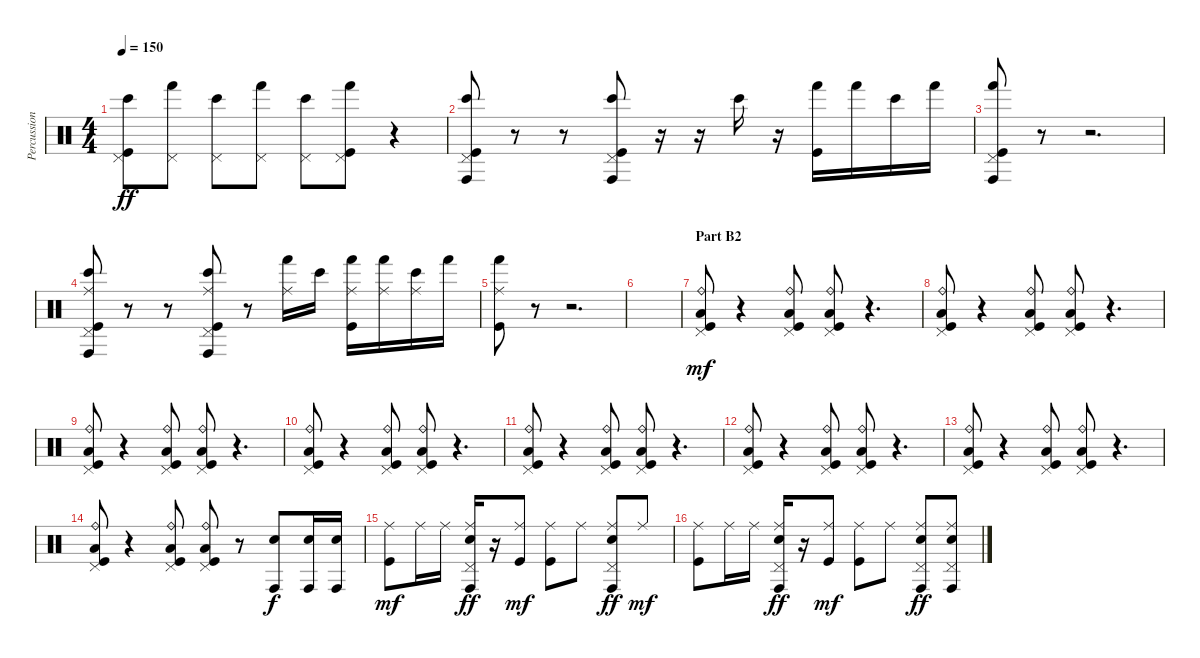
\track ("Percussion" "Percussion") {instrument percussion}
\staff {score}
\articulation defaults
\ts (4 4)
\tempo 150
\clef neutral
\ks c
("Pedal Hi-Hat (hit)" "Bongo High (hit)" "Kick (hit)").8{dy ff} ("Pedal Hi-Hat (hit)" "Hand (hit)").8 ("Pedal Hi-Hat (hit)" "Bongo High (hit)").8 ("Pedal Hi-Hat (hit)" "Hand (hit)").8 ("Pedal Hi-Hat (hit)" "Bongo High (hit)").8 ("Pedal Hi-Hat (hit)" "Hand (hit)" "Kick (hit)").8 r.4 |
("Pedal Hi-Hat (hit)" "Conga high (hit)" "Bongo High (hit)" "Kick (hit)").8 r.8 r.8 ("Pedal Hi-Hat (hit)" "Conga high (hit)" "Bongo High (hit)" "Kick (hit)").8 r.16 r.16 "Bongo High (hit)".16 r.16 ("Hand (hit)" "Kick (hit)").16 "Hand (hit)".16 "Bongo High (hit)".16 "Hand (hit)".16 |
("Pedal Hi-Hat (hit)" "Conga high (hit)" "Hand (hit)" "Kick (hit)").8 r.8 r.2{d} |
("Ride (middle)" "Pedal Hi-Hat (hit)" "Conga high (hit)" "Bongo High (hit)" "Kick (hit)").8 r.8 r.8 ("Ride (middle)" "Pedal Hi-Hat (hit)" "Conga high (hit)" "Bongo High (hit)" "Kick (hit)").8 r.8 ("Ride (middle)" "Hand (hit)").16 "Bongo High (hit)".16 ("Ride (middle)" "Hand (hit)" "Kick (hit)").16 ("Ride (middle)" "Hand (hit)").16 ("Ride (middle)" "Bongo High (hit)").16 "Hand (hit)".16 |
("Ride (middle)" "Hand (hit)" "Kick (hit)").8 r.8 r.2{d} |
|
\section ("" "Part B2")
("Ride (bell)" "Pedal Hi-Hat (hit)" "Low Floor Tom (hit)" "Kick (hit)").8{dy mf} r.4 ("Ride (bell)" "Pedal Hi-Hat (hit)" "Low Floor Tom (hit)" "Kick (hit)").8 ("Ride (bell)" "Pedal Hi-Hat (hit)" "Low Floor Tom (hit)" "Kick (hit)").8 r.4{d} |
("Ride (bell)" "Pedal Hi-Hat (hit)" "Low Floor Tom (hit)" "Kick (hit)").8 r.4 ("Ride (bell)" "Pedal Hi-Hat (hit)" "Low Floor Tom (hit)" "Kick (hit)").8 ("Ride (bell)" "Pedal Hi-Hat (hit)" "Low Floor Tom (hit)" "Kick (hit)").8 r.4{d} |
("Ride (bell)" "Pedal Hi-Hat (hit)" "Low Floor Tom (hit)" "Kick (hit)").8 r.4 ("Ride (bell)" "Pedal Hi-Hat (hit)" "Low Floor Tom (hit)" "Kick (hit)").8 ("Ride (bell)" "Pedal Hi-Hat (hit)" "Low Floor Tom (hit)" "Kick (hit)").8 r.4{d} |
("Ride (bell)" "Pedal Hi-Hat (hit)" "Low Floor Tom (hit)" "Kick (hit)").8 r.4 ("Ride (bell)" "Pedal Hi-Hat (hit)" "Low Floor Tom (hit)" "Kick (hit)").8 ("Ride (bell)" "Pedal Hi-Hat (hit)" "Low Floor Tom (hit)" "Kick (hit)").8 r.4{d} |
("Ride (bell)" "Pedal Hi-Hat (hit)" "Low Floor Tom (hit)" "Kick (hit)").8 r.4 ("Ride (bell)" "Pedal Hi-Hat (hit)" "Low Floor Tom (hit)" "Kick (hit)").8 ("Ride (bell)" "Pedal Hi-Hat (hit)" "Low Floor Tom (hit)" "Kick (hit)").8 r.4{d} |
("Ride (bell)" "Pedal Hi-Hat (hit)" "Low Floor Tom (hit)" "Kick (hit)").8 r.4 ("Ride (bell)" "Pedal Hi-Hat (hit)" "Low Floor Tom (hit)" "Kick (hit)").8 ("Ride (bell)" "Pedal Hi-Hat (hit)" "Low Floor Tom (hit)" "Kick (hit)").8 r.4{d} |
("Ride (bell)" "Pedal Hi-Hat (hit)" "Low Floor Tom (hit)" "Kick (hit)").8 r.4 ("Ride (bell)" "Pedal Hi-Hat (hit)" "Low Floor Tom (hit)" "Kick (hit)").8 ("Ride (bell)" "Pedal Hi-Hat (hit)" "Low Floor Tom (hit)" "Kick (hit)").8 r.4{d} |
("Ride (bell)" "Pedal Hi-Hat (hit)" "Low Floor Tom (hit)" "Kick (hit)").8 r.4 ("Ride (bell)" "Pedal Hi-Hat (hit)" "Low Floor Tom (hit)" "Kick (hit)").8 ("Ride (bell)" "Pedal Hi-Hat (hit)" "Low Floor Tom (hit)" "Kick (hit)").8 r.8 ("Conga high (hit)" "Electric Snare (hit)").8{dy f} ("Conga high (hit)" "Electric Snare (hit)").16 ("Conga high (hit)" "Electric Snare (hit)").16 |
("Ride (middle)" "Kick (hit)").8{dy mf} "Ride (middle)".16 "Ride (middle)".16 ("Ride (middle)" "Pedal Hi-Hat (hit)" "Conga high (hit)" "Electric Snare (hit)").16{dy ff} r.16 ("Ride (middle)" "Kick (hit)").8{dy mf} ("Ride (middle)" "Kick (hit)").8 "Ride (middle)".8 ("Ride (middle)" "Pedal Hi-Hat (hit)" "Conga high (hit)" "Electric Snare (hit)").8{dy ff} "Ride (middle)".8{dy mf} |
("Ride (middle)" "Kick (hit)").8 "Ride (middle)".16 "Ride (middle)".16 ("Ride (middle)" "Pedal Hi-Hat (hit)" "Conga high (hit)" "Electric Snare (hit)").16{dy ff} r.16 ("Ride (middle)" "Kick (hit)").8{dy mf} ("Ride (middle)" "Kick (hit)").8 "Ride (middle)".8 ("Ride (middle)" "Pedal Hi-Hat (hit)" "Conga high (hit)" "Electric Snare (hit)").8{dy ff} ("Ride (middle)" "Pedal Hi-Hat (hit)" "Conga high (hit)" "Electric Snare (hit)").8
